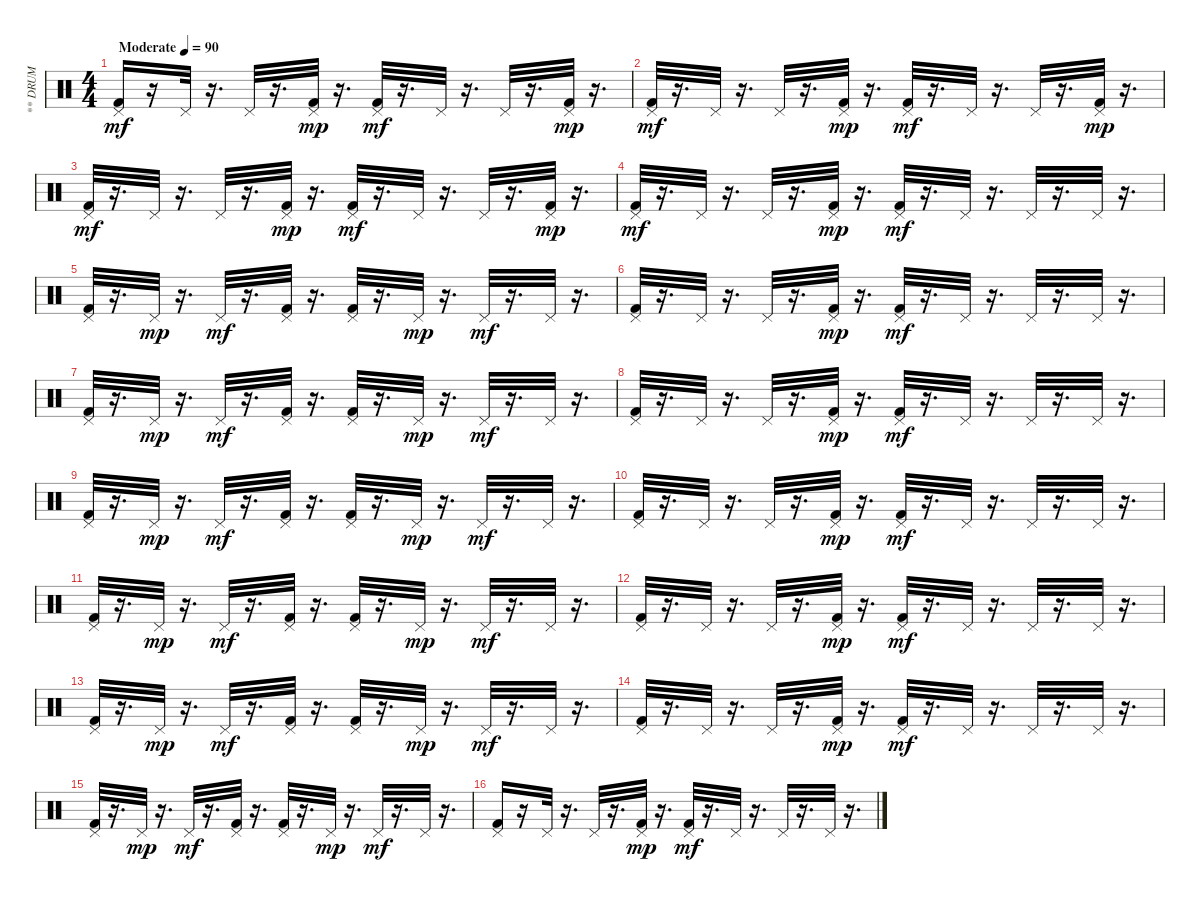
\track ("** DRUM" "** DRUM") {instrument percussion}
\staff {score}
\articulation defaults
\ts (4 4)
\tempo (90 "Moderate")
\clef neutral
\ks c
("Kick (hit) 2" "Pedal Hi-Hat (hit)").16{dy mf} r.16 "Pedal Hi-Hat (hit)".32 r.16{d} "Pedal Hi-Hat (hit)".32 r.16{d} ("Kick (hit) 2" "Pedal Hi-Hat (hit)").32{dy mp} r.16{d} ("Kick (hit) 2" "Pedal Hi-Hat (hit)").32{dy mf} r.16{d} "Pedal Hi-Hat (hit)".32 r.16{d} "Pedal Hi-Hat (hit)".32 r.16{d} ("Kick (hit) 2" "Pedal Hi-Hat (hit)").32{dy mp} r.16{d} |
("Kick (hit) 2" "Pedal Hi-Hat (hit)").32{dy mf} r.16{d} "Pedal Hi-Hat (hit)".32 r.16{d} "Pedal Hi-Hat (hit)".32 r.16{d} ("Kick (hit) 2" "Pedal Hi-Hat (hit)").32{dy mp} r.16{d} ("Kick (hit) 2" "Pedal Hi-Hat (hit)").32{dy mf} r.16{d} "Pedal Hi-Hat (hit)".32 r.16{d} "Pedal Hi-Hat (hit)".32 r.16{d} ("Kick (hit) 2" "Pedal Hi-Hat (hit)").32{dy mp} r.16{d} |
("Kick (hit) 2" "Pedal Hi-Hat (hit)").32{dy mf} r.16{d} "Pedal Hi-Hat (hit)".32 r.16{d} "Pedal Hi-Hat (hit)".32 r.16{d} ("Kick (hit) 2" "Pedal Hi-Hat (hit)").32{dy mp} r.16{d} ("Kick (hit) 2" "Pedal Hi-Hat (hit)").32{dy mf} r.16{d} "Pedal Hi-Hat (hit)".32 r.16{d} "Pedal Hi-Hat (hit)".32 r.16{d} ("Kick (hit) 2" "Pedal Hi-Hat (hit)").32{dy mp} r.16{d} |
("Kick (hit) 2" "Pedal Hi-Hat (hit)").32{dy mf} r.16{d} "Pedal Hi-Hat (hit)".32 r.16{d} "Pedal Hi-Hat (hit)".32 r.16{d} ("Kick (hit) 2" "Pedal Hi-Hat (hit)").32{dy mp} r.16{d} ("Kick (hit) 2" "Pedal Hi-Hat (hit)").32{dy mf} r.16{d} "Pedal Hi-Hat (hit)".32 r.16{d} "Pedal Hi-Hat (hit)".32 r.16{d} "Pedal Hi-Hat (hit)".32 r.16{d} |
("Kick (hit) 2" "Pedal Hi-Hat (hit)").32 r.16{d} "Pedal Hi-Hat (hit)".32{dy mp} r.16{d} "Pedal Hi-Hat (hit)".32{dy mf} r.16{d} ("Kick (hit) 2" "Pedal Hi-Hat (hit)").32 r.16{d} ("Kick (hit) 2" "Pedal Hi-Hat (hit)").32 r.16{d} "Pedal Hi-Hat (hit)".32{dy mp} r.16{d} "Pedal Hi-Hat (hit)".32{dy mf} r.16{d} "Pedal Hi-Hat (hit)".32 r.16{d} |
("Kick (hit) 2" "Pedal Hi-Hat (hit)").32 r.16{d} "Pedal Hi-Hat (hit)".32 r.16{d} "Pedal Hi-Hat (hit)".32 r.16{d} ("Kick (hit) 2" "Pedal Hi-Hat (hit)").32{dy mp} r.16{d} ("Kick (hit) 2" "Pedal Hi-Hat (hit)").32{dy mf} r.16{d} "Pedal Hi-Hat (hit)".32 r.16{d} "Pedal Hi-Hat (hit)".32 r.16{d} "Pedal Hi-Hat (hit)".32 r.16{d} |
("Kick (hit) 2" "Pedal Hi-Hat (hit)").32 r.16{d} "Pedal Hi-Hat (hit)".32{dy mp} r.16{d} "Pedal Hi-Hat (hit)".32{dy mf} r.16{d} ("Kick (hit) 2" "Pedal Hi-Hat (hit)").32 r.16{d} ("Kick (hit) 2" "Pedal Hi-Hat (hit)").32 r.16{d} "Pedal Hi-Hat (hit)".32{dy mp} r.16{d} "Pedal Hi-Hat (hit)".32{dy mf} r.16{d} "Pedal Hi-Hat (hit)".32 r.16{d} |
("Kick (hit) 2" "Pedal Hi-Hat (hit)").32 r.16{d} "Pedal Hi-Hat (hit)".32 r.16{d} "Pedal Hi-Hat (hit)".32 r.16{d} ("Kick (hit) 2" "Pedal Hi-Hat (hit)").32{dy mp} r.16{d} ("Kick (hit) 2" "Pedal Hi-Hat (hit)").32{dy mf} r.16{d} "Pedal Hi-Hat (hit)".32 r.16{d} "Pedal Hi-Hat (hit)".32 r.16{d} "Pedal Hi-Hat (hit)".32 r.16{d} |
("Kick (hit) 2" "Pedal Hi-Hat (hit)").32 r.16{d} "Pedal Hi-Hat (hit)".32{dy mp} r.16{d} "Pedal Hi-Hat (hit)".32{dy mf} r.16{d} ("Kick (hit) 2" "Pedal Hi-Hat (hit)").32 r.16{d} ("Kick (hit) 2" "Pedal Hi-Hat (hit)").32 r.16{d} "Pedal Hi-Hat (hit)".32{dy mp} r.16{d} "Pedal Hi-Hat (hit)".32{dy mf} r.16{d} "Pedal Hi-Hat (hit)".32 r.16{d} |
("Kick (hit) 2" "Pedal Hi-Hat (hit)").32 r.16{d} "Pedal Hi-Hat (hit)".32 r.16{d} "Pedal Hi-Hat (hit)".32 r.16{d} ("Kick (hit) 2" "Pedal Hi-Hat (hit)").32{dy mp} r.16{d} ("Kick (hit) 2" "Pedal Hi-Hat (hit)").32{dy mf} r.16{d} "Pedal Hi-Hat (hit)".32 r.16{d} "Pedal Hi-Hat (hit)".32 r.16{d} "Pedal Hi-Hat (hit)".32 r.16{d} |
("Kick (hit) 2" "Pedal Hi-Hat (hit)").32 r.16{d} "Pedal Hi-Hat (hit)".32{dy mp} r.16{d} "Pedal Hi-Hat (hit)".32{dy mf} r.16{d} ("Kick (hit) 2" "Pedal Hi-Hat (hit)").32 r.16{d} ("Kick (hit) 2" "Pedal Hi-Hat (hit)").32 r.16{d} "Pedal Hi-Hat (hit)".32{dy mp} r.16{d} "Pedal Hi-Hat (hit)".32{dy mf} r.16{d} "Pedal Hi-Hat (hit)".32 r.16{d} |
("Kick (hit) 2" "Pedal Hi-Hat (hit)").32 r.16{d} "Pedal Hi-Hat (hit)".32 r.16{d} "Pedal Hi-Hat (hit)".32 r.16{d} ("Kick (hit) 2" "Pedal Hi-Hat (hit)").32{dy mp} r.16{d} ("Kick (hit) 2" "Pedal Hi-Hat (hit)").32{dy mf} r.16{d} "Pedal Hi-Hat (hit)".32 r.16{d} "Pedal Hi-Hat (hit)".32 r.16{d} "Pedal Hi-Hat (hit)".32 r.16{d} |
("Kick (hit) 2" "Pedal Hi-Hat (hit)").32 r.16{d} "Pedal Hi-Hat (hit)".32{dy mp} r.16{d} "Pedal Hi-Hat (hit)".32{dy mf} r.16{d} ("Kick (hit) 2" "Pedal Hi-Hat (hit)").32 r.16{d} ("Kick (hit) 2" "Pedal Hi-Hat (hit)").32 r.16{d} "Pedal Hi-Hat (hit)".32{dy mp} r.16{d} "Pedal Hi-Hat (hit)".32{dy mf} r.16{d} "Pedal Hi-Hat (hit)".32 r.16{d} |
("Kick (hit) 2" "Pedal Hi-Hat (hit)").32 r.16{d} "Pedal Hi-Hat (hit)".32 r.16{d} "Pedal Hi-Hat (hit)".32 r.16{d} ("Kick (hit) 2" "Pedal Hi-Hat (hit)").32{dy mp} r.16{d} ("Kick (hit) 2" "Pedal Hi-Hat (hit)").32{dy mf} r.16{d} "Pedal Hi-Hat (hit)".32 r.16{d} "Pedal Hi-Hat (hit)".32 r.16{d} "Pedal Hi-Hat (hit)".32 r.16{d} |
("Kick (hit) 2" "Pedal Hi-Hat (hit)").32 r.16{d} "Pedal Hi-Hat (hit)".32{dy mp} r.16{d} "Pedal Hi-Hat (hit)".32{dy mf} r.16{d} ("Kick (hit) 2" "Pedal Hi-Hat (hit)").32 r.16{d} ("Kick (hit) 2" "Pedal Hi-Hat (hit)").32 r.16{d} "Pedal Hi-Hat (hit)".32{dy mp} r.16{d} "Pedal Hi-Hat (hit)".32{dy mf} r.16{d} "Pedal Hi-Hat (hit)".32 r.16{d} |
("Kick (hit) 2" "Pedal Hi-Hat (hit)").16 r.16 "Pedal Hi-Hat (hit)".32 r.16{d} "Pedal Hi-Hat (hit)".32 r.16{d} ("Kick (hit) 2" "Pedal Hi-Hat (hit)").32{dy mp} r.16{d} ("Kick (hit) 2" "Pedal Hi-Hat (hit)").32{dy mf} r.16{d} "Pedal Hi-Hat (hit)".32 r.16{d} "Pedal Hi-Hat (hit)".32 r.16{d} "Pedal Hi-Hat (hit)".32 r.16{d}
